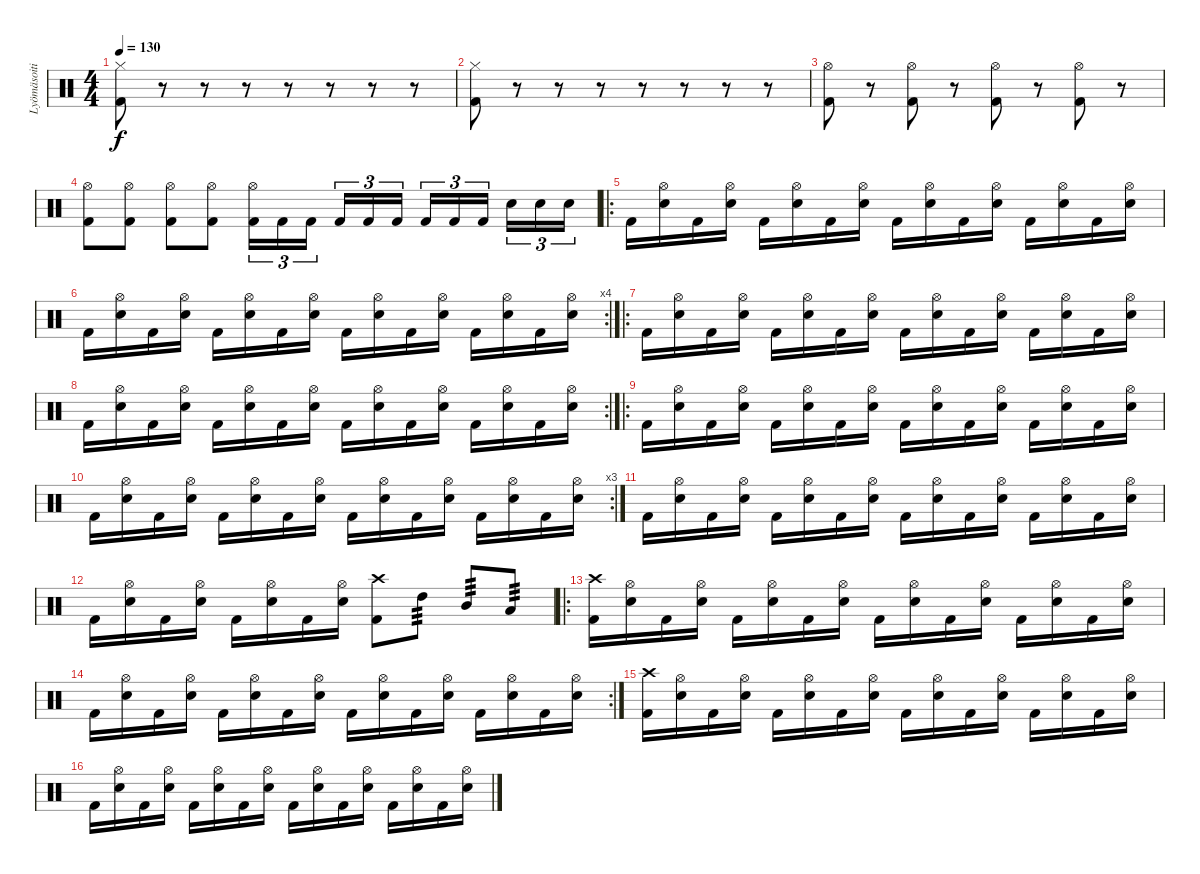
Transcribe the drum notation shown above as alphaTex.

\track ("Lyömäsoitin" "Lyömäsoiti") {instrument percussion}
\staff {score}
\articulation defaults
\ts (4 4)
\tempo 130
\clef neutral
\ks c
("Hi-Hat (closed)" "Kick (hit) 2").8{dy f} r.8 r.8 r.8 r.8 r.8 r.8 r.8 |
("Hi-Hat (closed)" "Kick (hit) 2").8 r.8 r.8 r.8 r.8 r.8 r.8 r.8 |
("Hi-Hat (open)" "Kick (hit) 2").8 r.8 ("Hi-Hat (open)" "Kick (hit) 2").8 r.8 ("Hi-Hat (open)" "Kick (hit) 2").8 r.8 ("Hi-Hat (open)" "Kick (hit) 2").8 r.8 |
("Hi-Hat (open)" "Kick (hit) 2").8 ("Hi-Hat (open)" "Kick (hit) 2").8 ("Hi-Hat (open)" "Kick (hit) 2").8 ("Hi-Hat (open)" "Kick (hit) 2").8 ("Hi-Hat (open)" "Kick (hit) 2").16{tu (3 2)} "Kick (hit) 2".16{tu (3 2)} "Kick (hit) 2".16{tu (3 2)} "Kick (hit) 2".16{tu (3 2)} "Kick (hit) 2".16{tu (3 2)} "Kick (hit) 2".16{tu (3 2)} "Kick (hit) 2".16{tu (3 2)} "Kick (hit) 2".16{tu (3 2)} "Kick (hit) 2".16{tu (3 2)} "Snare (hit) 2".16{tu (3 2)} "Snare (hit) 2".16{tu (3 2)} "Snare (hit) 2".16{tu (3 2)} |
\ro "Kick (hit) 2".16
("Hi-Hat (open)" "Snare (hit) 2").16 "Kick (hit) 2".16 ("Hi-Hat (open)" "Snare (hit) 2").16 "Kick (hit) 2".16 ("Hi-Hat (open)" "Snare (hit) 2").16 "Kick (hit) 2".16 ("Hi-Hat (open)" "Snare (hit) 2").16 "Kick (hit) 2".16 ("Hi-Hat (open)" "Snare (hit) 2").16 "Kick (hit) 2".16 ("Hi-Hat (open)" "Snare (hit) 2").16 "Kick (hit) 2".16 ("Hi-Hat (open)" "Snare (hit) 2").16 "Kick (hit) 2".16 ("Hi-Hat (open)" "Snare (hit) 2").16 |
\rc 4 "Kick (hit) 2".16
("Hi-Hat (open)" "Snare (hit) 2").16 "Kick (hit) 2".16 ("Hi-Hat (open)" "Snare (hit) 2").16 "Kick (hit) 2".16 ("Hi-Hat (open)" "Snare (hit) 2").16 "Kick (hit) 2".16 ("Hi-Hat (open)" "Snare (hit) 2").16 "Kick (hit) 2".16 ("Hi-Hat (open)" "Snare (hit) 2").16 "Kick (hit) 2".16 ("Hi-Hat (open)" "Snare (hit) 2").16 "Kick (hit) 2".16 ("Hi-Hat (open)" "Snare (hit) 2").16 "Kick (hit) 2".16 ("Hi-Hat (open)" "Snare (hit) 2").16 |
\ro "Kick (hit) 2".16
("Hi-Hat (open)" "Snare (hit) 2").16 "Kick (hit) 2".16 ("Hi-Hat (open)" "Snare (hit) 2").16 "Kick (hit) 2".16 ("Hi-Hat (open)" "Snare (hit) 2").16 "Kick (hit) 2".16 ("Hi-Hat (open)" "Snare (hit) 2").16 "Kick (hit) 2".16 ("Hi-Hat (open)" "Snare (hit) 2").16 "Kick (hit) 2".16 ("Hi-Hat (open)" "Snare (hit) 2").16 "Kick (hit) 2".16 ("Hi-Hat (open)" "Snare (hit) 2").16 "Kick (hit) 2".16 ("Hi-Hat (open)" "Snare (hit) 2").16 |
\rc 2 "Kick (hit) 2".16
("Hi-Hat (open)" "Snare (hit) 2").16 "Kick (hit) 2".16 ("Hi-Hat (open)" "Snare (hit) 2").16 "Kick (hit) 2".16 ("Hi-Hat (open)" "Snare (hit) 2").16 "Kick (hit) 2".16 ("Hi-Hat (open)" "Snare (hit) 2").16 "Kick (hit) 2".16 ("Hi-Hat (open)" "Snare (hit) 2").16 "Kick (hit) 2".16 ("Hi-Hat (open)" "Snare (hit) 2").16 "Kick (hit) 2".16 ("Hi-Hat (open)" "Snare (hit) 2").16 "Kick (hit) 2".16 ("Hi-Hat (open)" "Snare (hit) 2").16 |
\ro "Kick (hit) 2".16
("Hi-Hat (open)" "Snare (hit) 2").16 "Kick (hit) 2".16 ("Hi-Hat (open)" "Snare (hit) 2").16 "Kick (hit) 2".16 ("Hi-Hat (open)" "Snare (hit) 2").16 "Kick (hit) 2".16 ("Hi-Hat (open)" "Snare (hit) 2").16 "Kick (hit) 2".16 ("Hi-Hat (open)" "Snare (hit) 2").16 "Kick (hit) 2".16 ("Hi-Hat (open)" "Snare (hit) 2").16 "Kick (hit) 2".16 ("Hi-Hat (open)" "Snare (hit) 2").16 "Kick (hit) 2".16 ("Hi-Hat (open)" "Snare (hit) 2").16 |
\rc 3 "Kick (hit) 2".16
("Hi-Hat (open)" "Snare (hit) 2").16 "Kick (hit) 2".16 ("Hi-Hat (open)" "Snare (hit) 2").16 "Kick (hit) 2".16 ("Hi-Hat (open)" "Snare (hit) 2").16 "Kick (hit) 2".16 ("Hi-Hat (open)" "Snare (hit) 2").16 "Kick (hit) 2".16 ("Hi-Hat (open)" "Snare (hit) 2").16 "Kick (hit) 2".16 ("Hi-Hat (open)" "Snare (hit) 2").16 "Kick (hit) 2".16 ("Hi-Hat (open)" "Snare (hit) 2").16 "Kick (hit) 2".16 ("Hi-Hat (open)" "Snare (hit) 2").16 |
"Kick (hit) 2".16 ("Hi-Hat (open)" "Snare (hit) 2").16 "Kick (hit) 2".16 ("Hi-Hat (open)" "Snare (hit) 2").16 "Kick (hit) 2".16 ("Hi-Hat (open)" "Snare (hit) 2").16 "Kick (hit) 2".16 ("Hi-Hat (open)" "Snare (hit) 2").16 "Kick (hit) 2".16 ("Hi-Hat (open)" "Snare (hit) 2").16 "Kick (hit) 2".16 ("Hi-Hat (open)" "Snare (hit) 2").16 "Kick (hit) 2".16 ("Hi-Hat (open)" "Snare (hit) 2").16 "Kick (hit) 2".16 ("Hi-Hat (open)" "Snare (hit) 2").16 |
"Kick (hit) 2".16 ("Hi-Hat (open)" "Snare (hit) 2").16 "Kick (hit) 2".16 ("Hi-Hat (open)" "Snare (hit) 2").16 "Kick (hit) 2".16 ("Hi-Hat (open)" "Snare (hit) 2").16 "Kick (hit) 2".16 ("Hi-Hat (open)" "Snare (hit) 2").16 ("Crash high (hit)" "Kick (hit) 2").8 "High Tom (hit)".8{tp 3} "Mid Tom (hit)".8{tp 3} "Low Tom (hit)".8{tp 3} |
\ro
("Crash high (hit)" "Kick (hit) 2").16 ("Hi-Hat (open)" "Snare (hit) 2").16 "Kick (hit) 2".16 ("Hi-Hat (open)" "Snare (hit) 2").16 "Kick (hit) 2".16 ("Hi-Hat (open)" "Snare (hit) 2").16 "Kick (hit) 2".16 ("Hi-Hat (open)" "Snare (hit) 2").16 "Kick (hit) 2".16 ("Hi-Hat (open)" "Snare (hit) 2").16 "Kick (hit) 2".16 ("Hi-Hat (open)" "Snare (hit) 2").16 "Kick (hit) 2".16 ("Hi-Hat (open)" "Snare (hit) 2").16 "Kick (hit) 2".16 ("Hi-Hat (open)" "Snare (hit) 2").16 |
\rc 2 "Kick (hit) 2".16
("Hi-Hat (open)" "Snare (hit) 2").16 "Kick (hit) 2".16 ("Hi-Hat (open)" "Snare (hit) 2").16 "Kick (hit) 2".16 ("Hi-Hat (open)" "Snare (hit) 2").16 "Kick (hit) 2".16 ("Hi-Hat (open)" "Snare (hit) 2").16 "Kick (hit) 2".16 ("Hi-Hat (open)" "Snare (hit) 2").16 "Kick (hit) 2".16 ("Hi-Hat (open)" "Snare (hit) 2").16 "Kick (hit) 2".16 ("Hi-Hat (open)" "Snare (hit) 2").16 "Kick (hit) 2".16 ("Hi-Hat (open)" "Snare (hit) 2").16 |
("Crash high (hit)" "Kick (hit) 2").16 ("Hi-Hat (open)" "Snare (hit) 2").16 "Kick (hit) 2".16 ("Hi-Hat (open)" "Snare (hit) 2").16 "Kick (hit) 2".16 ("Hi-Hat (open)" "Snare (hit) 2").16 "Kick (hit) 2".16 ("Hi-Hat (open)" "Snare (hit) 2").16 "Kick (hit) 2".16 ("Hi-Hat (open)" "Snare (hit) 2").16 "Kick (hit) 2".16 ("Hi-Hat (open)" "Snare (hit) 2").16 "Kick (hit) 2".16 ("Hi-Hat (open)" "Snare (hit) 2").16 "Kick (hit) 2".16 ("Hi-Hat (open)" "Snare (hit) 2").16 |
"Kick (hit) 2".16 ("Hi-Hat (open)" "Snare (hit) 2").16 "Kick (hit) 2".16 ("Hi-Hat (open)" "Snare (hit) 2").16 "Kick (hit) 2".16 ("Hi-Hat (open)" "Snare (hit) 2").16 "Kick (hit) 2".16 ("Hi-Hat (open)" "Snare (hit) 2").16 "Kick (hit) 2".16 ("Hi-Hat (open)" "Snare (hit) 2").16 "Kick (hit) 2".16 ("Hi-Hat (open)" "Snare (hit) 2").16 "Kick (hit) 2".16 ("Hi-Hat (open)" "Snare (hit) 2").16 "Kick (hit) 2".16 ("Hi-Hat (open)" "Snare (hit) 2").16
